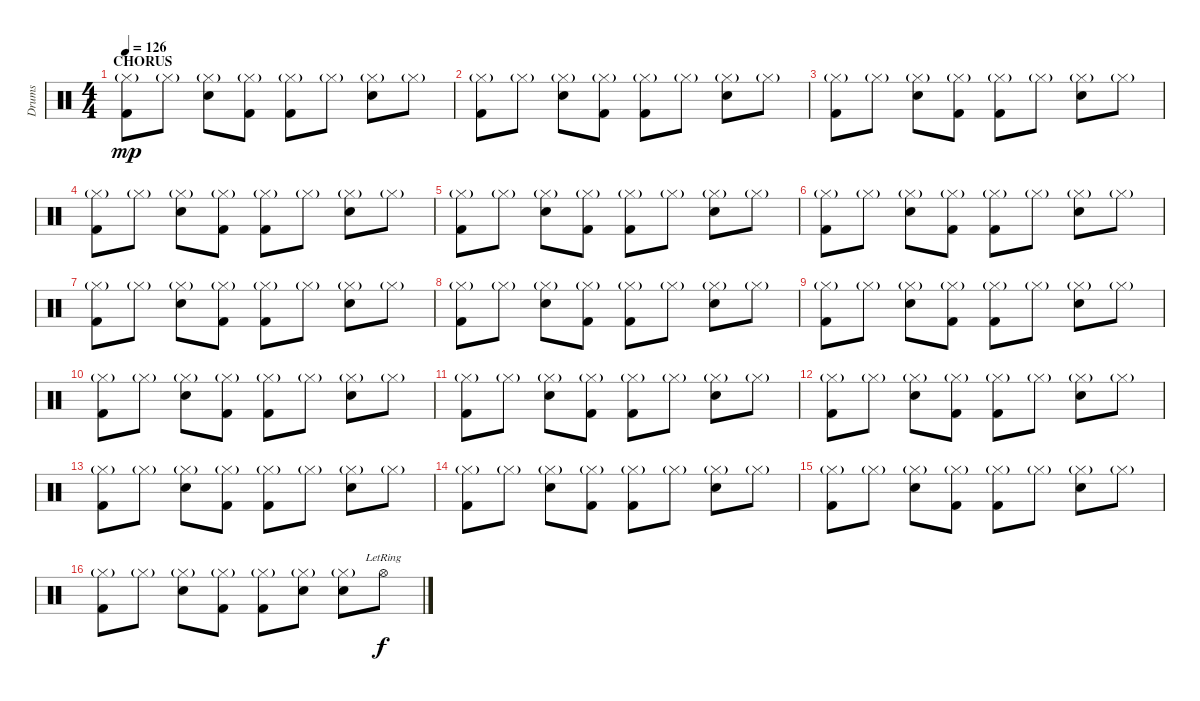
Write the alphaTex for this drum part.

\track ("Drums" "Drums") {instrument percussion}
\staff {score}
\articulation defaults
\ts (4 4)
\section ("" "CHORUS")
\tempo 126
\clef neutral
\ks c
("Hi-Hat (closed)"{g} "Kick (hit) 2").8{dy mp} "Hi-Hat (closed)"{g}.8 ("Hi-Hat (closed)"{g} "Snare (hit) 2").8 ("Hi-Hat (closed)"{g} "Kick (hit) 2").8 ("Hi-Hat (closed)"{g} "Kick (hit) 2").8 "Hi-Hat (closed)"{g}.8 ("Hi-Hat (closed)"{g} "Snare (hit) 2").8 "Hi-Hat (closed)"{g}.8 |
("Hi-Hat (closed)"{g} "Kick (hit) 2").8 "Hi-Hat (closed)"{g}.8 ("Hi-Hat (closed)"{g} "Snare (hit) 2").8 ("Hi-Hat (closed)"{g} "Kick (hit) 2").8 ("Hi-Hat (closed)"{g} "Kick (hit) 2").8 "Hi-Hat (closed)"{g}.8 ("Hi-Hat (closed)"{g} "Snare (hit) 2").8 "Hi-Hat (closed)"{g}.8 |
("Hi-Hat (closed)"{g} "Kick (hit) 2").8 "Hi-Hat (closed)"{g}.8 ("Hi-Hat (closed)"{g} "Snare (hit) 2").8 ("Hi-Hat (closed)"{g} "Kick (hit) 2").8 ("Hi-Hat (closed)"{g} "Kick (hit) 2").8 "Hi-Hat (closed)"{g}.8 ("Hi-Hat (closed)"{g} "Snare (hit) 2").8 "Hi-Hat (closed)"{g}.8 |
("Hi-Hat (closed)"{g} "Kick (hit) 2").8 "Hi-Hat (closed)"{g}.8 ("Hi-Hat (closed)"{g} "Snare (hit) 2").8 ("Hi-Hat (closed)"{g} "Kick (hit) 2").8 ("Hi-Hat (closed)"{g} "Kick (hit) 2").8 "Hi-Hat (closed)"{g}.8 ("Hi-Hat (closed)"{g} "Snare (hit) 2").8 "Hi-Hat (closed)"{g}.8 |
("Hi-Hat (closed)"{g} "Kick (hit) 2").8 "Hi-Hat (closed)"{g}.8 ("Hi-Hat (closed)"{g} "Snare (hit) 2").8 ("Hi-Hat (closed)"{g} "Kick (hit) 2").8 ("Hi-Hat (closed)"{g} "Kick (hit) 2").8 "Hi-Hat (closed)"{g}.8 ("Hi-Hat (closed)"{g} "Snare (hit) 2").8 "Hi-Hat (closed)"{g}.8 |
("Hi-Hat (closed)"{g} "Kick (hit) 2").8 "Hi-Hat (closed)"{g}.8 ("Hi-Hat (closed)"{g} "Snare (hit) 2").8 ("Hi-Hat (closed)"{g} "Kick (hit) 2").8 ("Hi-Hat (closed)"{g} "Kick (hit) 2").8 "Hi-Hat (closed)"{g}.8 ("Hi-Hat (closed)"{g} "Snare (hit) 2").8 "Hi-Hat (closed)"{g}.8 |
("Hi-Hat (closed)"{g} "Kick (hit) 2").8 "Hi-Hat (closed)"{g}.8 ("Hi-Hat (closed)"{g} "Snare (hit) 2").8 ("Hi-Hat (closed)"{g} "Kick (hit) 2").8 ("Hi-Hat (closed)"{g} "Kick (hit) 2").8 "Hi-Hat (closed)"{g}.8 ("Hi-Hat (closed)"{g} "Snare (hit) 2").8 "Hi-Hat (closed)"{g}.8 |
("Hi-Hat (closed)"{g} "Kick (hit) 2").8 "Hi-Hat (closed)"{g}.8 ("Hi-Hat (closed)"{g} "Snare (hit) 2").8 ("Hi-Hat (closed)"{g} "Kick (hit) 2").8 ("Hi-Hat (closed)"{g} "Kick (hit) 2").8 "Hi-Hat (closed)"{g}.8 ("Hi-Hat (closed)"{g} "Snare (hit) 2").8 "Hi-Hat (closed)"{g}.8 |
("Hi-Hat (closed)"{g} "Kick (hit) 2").8 "Hi-Hat (closed)"{g}.8 ("Hi-Hat (closed)"{g} "Snare (hit) 2").8 ("Hi-Hat (closed)"{g} "Kick (hit) 2").8 ("Hi-Hat (closed)"{g} "Kick (hit) 2").8 "Hi-Hat (closed)"{g}.8 ("Hi-Hat (closed)"{g} "Snare (hit) 2").8 "Hi-Hat (closed)"{g}.8 |
("Hi-Hat (closed)"{g} "Kick (hit) 2").8 "Hi-Hat (closed)"{g}.8 ("Hi-Hat (closed)"{g} "Snare (hit) 2").8 ("Hi-Hat (closed)"{g} "Kick (hit) 2").8 ("Hi-Hat (closed)"{g} "Kick (hit) 2").8 "Hi-Hat (closed)"{g}.8 ("Hi-Hat (closed)"{g} "Snare (hit) 2").8 "Hi-Hat (closed)"{g}.8 |
("Hi-Hat (closed)"{g} "Kick (hit) 2").8 "Hi-Hat (closed)"{g}.8 ("Hi-Hat (closed)"{g} "Snare (hit) 2").8 ("Hi-Hat (closed)"{g} "Kick (hit) 2").8 ("Hi-Hat (closed)"{g} "Kick (hit) 2").8 "Hi-Hat (closed)"{g}.8 ("Hi-Hat (closed)"{g} "Snare (hit) 2").8 "Hi-Hat (closed)"{g}.8 |
("Hi-Hat (closed)"{g} "Kick (hit) 2").8 "Hi-Hat (closed)"{g}.8 ("Hi-Hat (closed)"{g} "Snare (hit) 2").8 ("Hi-Hat (closed)"{g} "Kick (hit) 2").8 ("Hi-Hat (closed)"{g} "Kick (hit) 2").8 "Hi-Hat (closed)"{g}.8 ("Hi-Hat (closed)"{g} "Snare (hit) 2").8 "Hi-Hat (closed)"{g}.8 |
("Hi-Hat (closed)"{g} "Kick (hit) 2").8 "Hi-Hat (closed)"{g}.8 ("Hi-Hat (closed)"{g} "Snare (hit) 2").8 ("Hi-Hat (closed)"{g} "Kick (hit) 2").8 ("Hi-Hat (closed)"{g} "Kick (hit) 2").8 "Hi-Hat (closed)"{g}.8 ("Hi-Hat (closed)"{g} "Snare (hit) 2").8 "Hi-Hat (closed)"{g}.8 |
("Hi-Hat (closed)"{g} "Kick (hit) 2").8 "Hi-Hat (closed)"{g}.8 ("Hi-Hat (closed)"{g} "Snare (hit) 2").8 ("Hi-Hat (closed)"{g} "Kick (hit) 2").8 ("Hi-Hat (closed)"{g} "Kick (hit) 2").8 "Hi-Hat (closed)"{g}.8 ("Hi-Hat (closed)"{g} "Snare (hit) 2").8 "Hi-Hat (closed)"{g}.8 |
("Hi-Hat (closed)"{g} "Kick (hit) 2").8 "Hi-Hat (closed)"{g}.8 ("Hi-Hat (closed)"{g} "Snare (hit) 2").8 ("Hi-Hat (closed)"{g} "Kick (hit) 2").8 ("Hi-Hat (closed)"{g} "Kick (hit) 2").8 "Hi-Hat (closed)"{g}.8 ("Hi-Hat (closed)"{g} "Snare (hit) 2").8 "Hi-Hat (closed)"{g}.8 |
("Hi-Hat (closed)"{g} "Kick (hit) 2").8 "Hi-Hat (closed)"{g}.8 ("Hi-Hat (closed)"{g} "Snare (hit) 2").8 ("Hi-Hat (closed)"{g} "Kick (hit) 2").8 ("Hi-Hat (closed)"{g} "Kick (hit) 2").8 ("Hi-Hat (closed)"{g} "Snare (hit) 2").8 ("Hi-Hat (closed)"{g} "Snare (hit) 2").8 "Hi-Hat (open)"{lr}.8{dy f}
